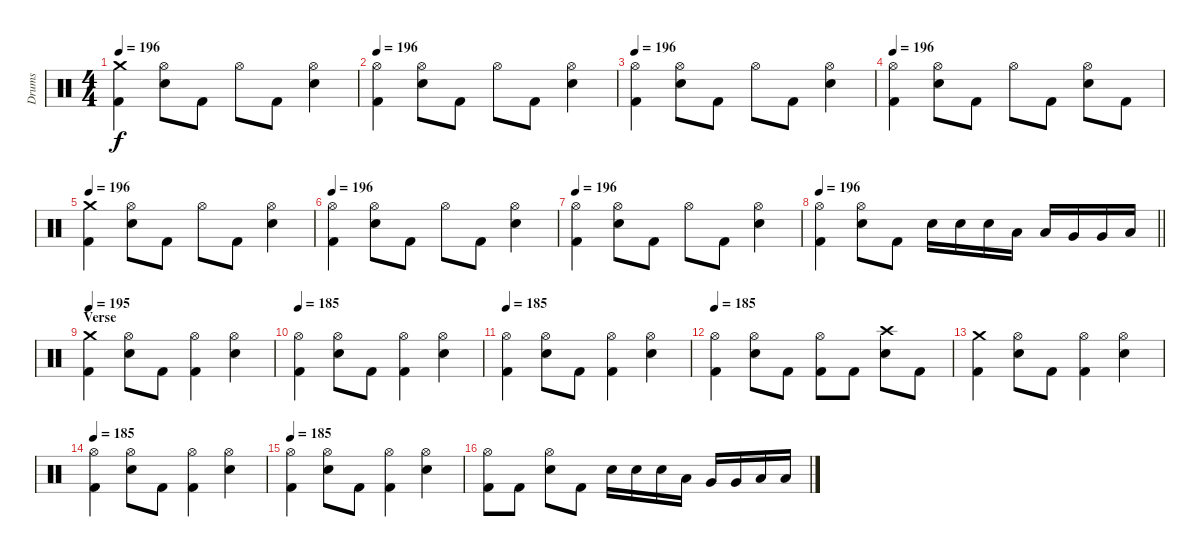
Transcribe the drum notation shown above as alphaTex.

\track ("Drums" "Drums") {instrument percussion}
\staff {score}
\articulation defaults
\ts (4 4)
\tempo 196
\clef neutral
\ks c
("Crash medium (hit)" "Kick (hit) 2").4{dy f} ("Hi-Hat (open)" "Electric Snare (hit)").8 "Kick (hit) 2".8 "Hi-Hat (open)".8 "Kick (hit) 2".8 ("Hi-Hat (open)" "Electric Snare (hit)").4 |
\tempo 196
("Hi-Hat (open)" "Kick (hit) 2").4 ("Hi-Hat (open)" "Electric Snare (hit)").8 "Kick (hit) 2".8 "Hi-Hat (open)".8 "Kick (hit) 2".8 ("Hi-Hat (open)" "Electric Snare (hit)").4 |
\tempo 196
("Hi-Hat (open)" "Kick (hit) 2").4 ("Hi-Hat (open)" "Electric Snare (hit)").8 "Kick (hit) 2".8 "Hi-Hat (open)".8 "Kick (hit) 2".8 ("Hi-Hat (open)" "Electric Snare (hit)").4 |
\tempo 196
("Hi-Hat (open)" "Kick (hit) 2").4 ("Hi-Hat (open)" "Electric Snare (hit)").8 "Kick (hit) 2".8 "Hi-Hat (open)".8 "Kick (hit) 2".8 ("Hi-Hat (open)" "Electric Snare (hit)").8 "Kick (hit) 2".8 |
\tempo 196
("Crash medium (hit)" "Kick (hit) 2").4 ("Hi-Hat (open)" "Electric Snare (hit)").8 "Kick (hit) 2".8 "Hi-Hat (open)".8 "Kick (hit) 2".8 ("Hi-Hat (open)" "Electric Snare (hit)").4 |
\tempo 196
("Hi-Hat (open)" "Kick (hit) 2").4 ("Hi-Hat (open)" "Electric Snare (hit)").8 "Kick (hit) 2".8 "Hi-Hat (open)".8 "Kick (hit) 2".8 ("Hi-Hat (open)" "Electric Snare (hit)").4 |
\tempo 196
("Hi-Hat (open)" "Kick (hit) 2").4 ("Hi-Hat (open)" "Electric Snare (hit)").8 "Kick (hit) 2".8 "Hi-Hat (open)".8 "Kick (hit) 2".8 ("Hi-Hat (open)" "Electric Snare (hit)").4 |
\tempo 196
\barLineRight lightlight
("Hi-Hat (open)" "Kick (hit) 2").4 ("Hi-Hat (open)" "Electric Snare (hit)").8 "Kick (hit) 2".8 "Electric Snare (hit)".16 "Electric Snare (hit)".16 "Electric Snare (hit)".16 "Low Tom (hit)".16 "Low Tom (hit)".16 "Very Low Tom (hit)".16 "Very Low Tom (hit)".16 "Low Floor Tom (hit)".16 |
\section ("" "Verse")
\tempo 195
("Crash medium (hit)" "Kick (hit) 2").4 ("Hi-Hat (open)" "Electric Snare (hit)").8 "Kick (hit) 2".8 ("Hi-Hat (open)" "Kick (hit) 2").4 ("Hi-Hat (open)" "Electric Snare (hit)").4 |
\tempo 185
("Hi-Hat (open)" "Kick (hit) 2").4 ("Hi-Hat (open)" "Electric Snare (hit)").8 "Kick (hit) 2".8 ("Hi-Hat (open)" "Kick (hit) 2").4 ("Hi-Hat (open)" "Electric Snare (hit)").4 |
\tempo 185
("Hi-Hat (open)" "Kick (hit) 2").4 ("Hi-Hat (open)" "Electric Snare (hit)").8 "Kick (hit) 2".8 ("Hi-Hat (open)" "Kick (hit) 2").4 ("Hi-Hat (open)" "Electric Snare (hit)").4 |
\tempo 185
("Hi-Hat (open)" "Kick (hit) 2").4 ("Hi-Hat (open)" "Electric Snare (hit)").8 "Kick (hit) 2".8 ("Hi-Hat (open)" "Kick (hit) 2").8 "Kick (hit) 2".8 ("Crash high (hit)" "Electric Snare (hit)").8 "Kick (hit) 2".8 |
("Crash medium (hit)" "Kick (hit) 2").4 ("Hi-Hat (open)" "Electric Snare (hit)").8 "Kick (hit) 2".8 ("Hi-Hat (open)" "Kick (hit) 2").4 ("Hi-Hat (open)" "Electric Snare (hit)").4 |
\tempo 185
("Hi-Hat (open)" "Kick (hit) 2").4 ("Hi-Hat (open)" "Electric Snare (hit)").8 "Kick (hit) 2".8 ("Hi-Hat (open)" "Kick (hit) 2").4 ("Hi-Hat (open)" "Electric Snare (hit)").4 |
\tempo 185
("Hi-Hat (open)" "Kick (hit) 2").4 ("Hi-Hat (open)" "Electric Snare (hit)").8 "Kick (hit) 2".8 ("Hi-Hat (open)" "Kick (hit) 2").4 ("Hi-Hat (open)" "Electric Snare (hit)").4 |
("Hi-Hat (open)" "Kick (hit) 2").8 "Kick (hit) 2".8 ("Hi-Hat (open)" "Electric Snare (hit)").8 "Kick (hit) 2".8 "Electric Snare (hit)".16 "Electric Snare (hit)".16 "Electric Snare (hit)".16 "Low Tom (hit)".16 "Very Low Tom (hit)".16 "Very Low Tom (hit)".16 "Low Floor Tom (hit)".16 "Low Floor Tom (hit)".16
